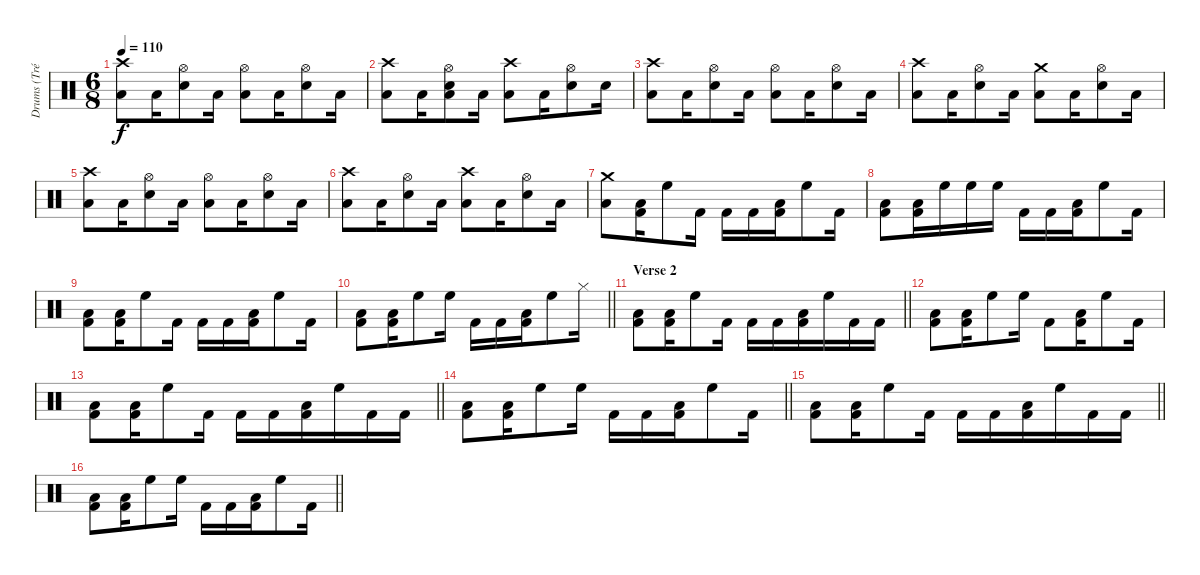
\track ("Drums (Tré Cool)" "Drums (Tré") {instrument percussion}
\staff {score}
\articulation defaults
\ts (6 8)
\tempo 110
\clef neutral
\ks c
("Crash high (hit)" "Low Floor Tom (hit)").8{dy f} "Low Floor Tom (hit)".16 ("Hi-Hat (open)" "Electric Snare (hit)").8 "Low Floor Tom (hit)".16 ("Hi-Hat (open)" "Low Floor Tom (hit)").8 "Low Floor Tom (hit)".16 ("Hi-Hat (open)" "Electric Snare (hit)").8 "Low Floor Tom (hit)".16 |
("Crash high (hit)" "Low Floor Tom (hit)").8 "Low Floor Tom (hit)".16 ("Hi-Hat (open)" "Electric Snare (hit)" "Low Floor Tom (hit)").8 "Low Floor Tom (hit)".16 ("Crash high (hit)" "Low Floor Tom (hit)").8 "Low Floor Tom (hit)".16 ("Hi-Hat (open)" "Electric Snare (hit)").8 "Electric Snare (hit)".16 |
("Crash high (hit)" "Low Floor Tom (hit)").8 "Low Floor Tom (hit)".16 ("Hi-Hat (open)" "Electric Snare (hit)").8 "Low Floor Tom (hit)".16 ("Hi-Hat (open)" "Low Floor Tom (hit)").8 "Low Floor Tom (hit)".16 ("Hi-Hat (open)" "Electric Snare (hit)").8 "Low Floor Tom (hit)".16 |
("Crash high (hit)" "Low Floor Tom (hit)").8 "Low Floor Tom (hit)".16 ("Hi-Hat (open)" "Electric Snare (hit)").8 "Low Floor Tom (hit)".16 ("Crash medium (hit)" "Low Floor Tom (hit)").8 "Low Floor Tom (hit)".16 ("Hi-Hat (open)" "Electric Snare (hit)").8 "Low Floor Tom (hit)".16 |
("Crash high (hit)" "Low Floor Tom (hit)").8 "Low Floor Tom (hit)".16 ("Hi-Hat (open)" "Electric Snare (hit)").8 "Low Floor Tom (hit)".16 ("Hi-Hat (open)" "Low Floor Tom (hit)").8 "Low Floor Tom (hit)".16 ("Hi-Hat (open)" "Electric Snare (hit)").8 "Low Floor Tom (hit)".16 |
("Crash high (hit)" "Low Floor Tom (hit)").8 "Low Floor Tom (hit)".16 ("Hi-Hat (open)" "Electric Snare (hit)").8 "Low Floor Tom (hit)".16 ("Crash high (hit)" "Low Floor Tom (hit)").8 "Low Floor Tom (hit)".16 ("Hi-Hat (open)" "Electric Snare (hit)").8 "Low Floor Tom (hit)".16 |
("Crash medium (hit)" "Low Floor Tom (hit)").8 ("Kick (hit) 2" "Low Floor Tom (hit)").16 "High Floor Tom (hit)".8 "Kick (hit) 2".16 "Kick (hit) 2".16 "Kick (hit) 2".16 ("Kick (hit) 2" "Low Floor Tom (hit)").16 "High Floor Tom (hit)".8 "Kick (hit) 2".16 |
("Kick (hit) 2" "Low Floor Tom (hit)").8 ("Kick (hit) 2" "Low Floor Tom (hit)").16 "High Floor Tom (hit)".16 "High Floor Tom (hit)".16 "High Floor Tom (hit)".16 "Kick (hit) 2".16 "Kick (hit) 2".16 ("Kick (hit) 2" "Low Floor Tom (hit)").16 "High Floor Tom (hit)".8 "Kick (hit) 2".16 |
("Kick (hit) 2" "Low Floor Tom (hit)").8 ("Kick (hit) 2" "Low Floor Tom (hit)").16 "High Floor Tom (hit)".8 "Kick (hit) 2".16 "Kick (hit) 2".16 "Kick (hit) 2".16 ("Kick (hit) 2" "Low Floor Tom (hit)").16 "High Floor Tom (hit)".8 "Kick (hit) 2".16 |
\barLineRight lightlight
("Kick (hit) 2" "Low Floor Tom (hit)").8 ("Kick (hit) 2" "Low Floor Tom (hit)").16 "High Floor Tom (hit)".8 "High Floor Tom (hit)".16 "Kick (hit) 2".16 "Kick (hit) 2".16 ("Kick (hit) 2" "Low Floor Tom (hit)").16 "High Floor Tom (hit)".8 "Hi-Hat (closed)".16 |
\section ("" "Verse 2")
\barLineRight lightlight
("Kick (hit) 2" "Low Floor Tom (hit)").8 ("Kick (hit) 2" "Low Floor Tom (hit)").16 "High Floor Tom (hit)".8 "Kick (hit) 2".16 "Kick (hit) 2".16 "Kick (hit) 2".16 ("Kick (hit) 2" "Low Floor Tom (hit)").16 "High Floor Tom (hit)".16 "Kick (hit) 2".16 "Kick (hit) 2".16 |
("Kick (hit) 2" "Low Floor Tom (hit)").8 ("Kick (hit) 2" "Low Floor Tom (hit)").16 "High Floor Tom (hit)".8 "High Floor Tom (hit)".16 "Kick (hit) 2".8 ("Kick (hit) 2" "Low Floor Tom (hit)").16 "High Floor Tom (hit)".8 "Kick (hit) 2".16 |
\barLineRight lightlight
("Kick (hit) 2" "Low Floor Tom (hit)").8 ("Kick (hit) 2" "Low Floor Tom (hit)").16 "High Floor Tom (hit)".8 "Kick (hit) 2".16 "Kick (hit) 2".16 "Kick (hit) 2".16 ("Kick (hit) 2" "Low Floor Tom (hit)").16 "High Floor Tom (hit)".16 "Kick (hit) 2".16 "Kick (hit) 2".16 |
\barLineRight lightlight
("Kick (hit) 2" "Low Floor Tom (hit)").8 ("Kick (hit) 2" "Low Floor Tom (hit)").16 "High Floor Tom (hit)".8 "High Floor Tom (hit)".16 "Kick (hit) 2".16 "Kick (hit) 2".16 ("Kick (hit) 2" "Low Floor Tom (hit)").16 "High Floor Tom (hit)".8 "Kick (hit) 2".16 |
\barLineRight lightlight
("Kick (hit) 2" "Low Floor Tom (hit)").8 ("Kick (hit) 2" "Low Floor Tom (hit)").16 "High Floor Tom (hit)".8 "Kick (hit) 2".16 "Kick (hit) 2".16 "Kick (hit) 2".16 ("Kick (hit) 2" "Low Floor Tom (hit)").16 "High Floor Tom (hit)".16 "Kick (hit) 2".16 "Kick (hit) 2".16 |
\barLineRight lightlight
("Kick (hit) 2" "Low Floor Tom (hit)").8 ("Kick (hit) 2" "Low Floor Tom (hit)").16 "High Floor Tom (hit)".8 "High Floor Tom (hit)".16 "Kick (hit) 2".16 "Kick (hit) 2".16 ("Kick (hit) 2" "Low Floor Tom (hit)").16 "High Floor Tom (hit)".8 "Kick (hit) 2".16
